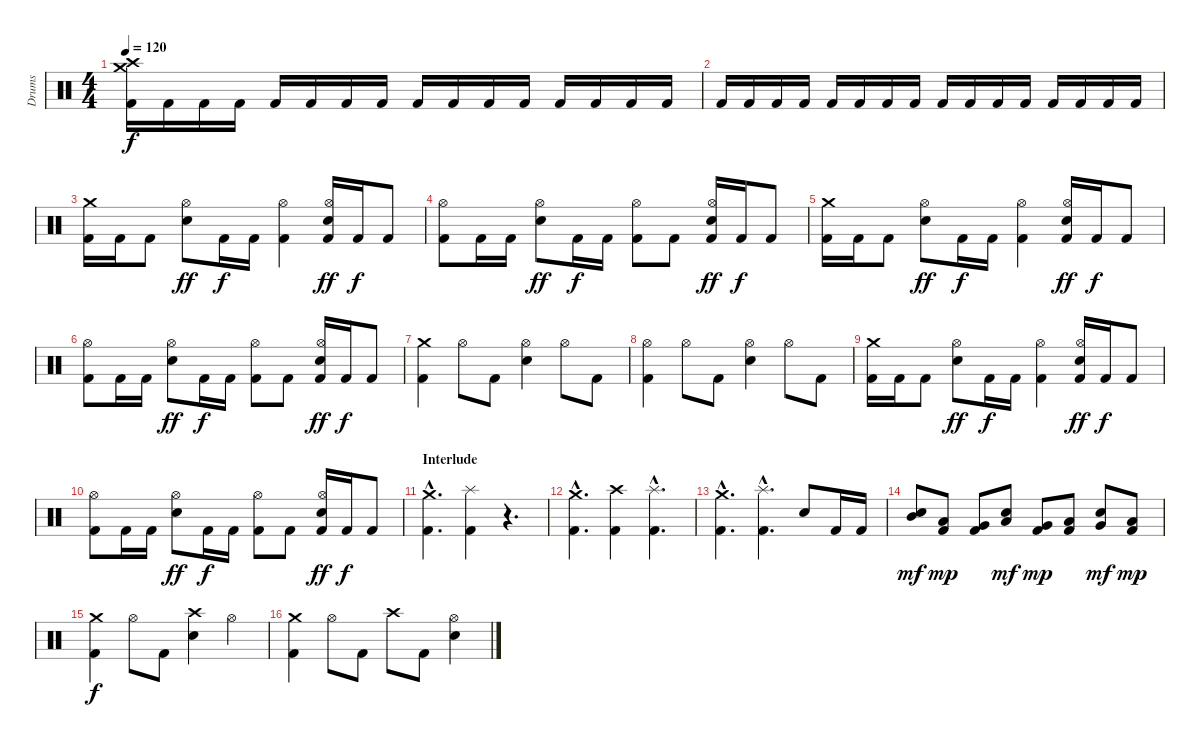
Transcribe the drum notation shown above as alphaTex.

\track ("Drums" "Drums") {instrument percussion}
\staff {score}
\articulation defaults
\ts (4 4)
\tempo 120
\clef neutral
\ks c
("Crash medium (hit)" "Crash high (hit)" "Kick (hit) 2").16{dy f} "Kick (hit) 2".16 "Kick (hit) 2".16 "Kick (hit) 2".16 "Kick (hit) 2".16 "Kick (hit) 2".16 "Kick (hit) 2".16 "Kick (hit) 2".16 "Kick (hit) 2".16 "Kick (hit) 2".16 "Kick (hit) 2".16 "Kick (hit) 2".16 "Kick (hit) 2".16 "Kick (hit) 2".16 "Kick (hit) 2".16 "Kick (hit) 2".16 |
"Kick (hit) 2".16 "Kick (hit) 2".16 "Kick (hit) 2".16 "Kick (hit) 2".16 "Kick (hit) 2".16 "Kick (hit) 2".16 "Kick (hit) 2".16 "Kick (hit) 2".16 "Kick (hit) 2".16 "Kick (hit) 2".16 "Kick (hit) 2".16 "Kick (hit) 2".16 "Kick (hit) 2".16 "Kick (hit) 2".16 "Kick (hit) 2".16 "Kick (hit) 2".16 |
("Crash medium (hit)" "Kick (hit) 2").16 "Kick (hit) 2".16 "Kick (hit) 2".8 ("Hi-Hat (open)" "Snare (hit) 2").8{dy ff} "Kick (hit) 2".16{dy f} "Kick (hit) 2".16 ("Hi-Hat (open)" "Kick (hit) 2").4 ("Hi-Hat (open)" "Snare (hit) 2" "Kick (hit) 2").16{dy ff} "Kick (hit) 2".16{dy f} "Kick (hit) 2".8 |
("Hi-Hat (open)" "Kick (hit) 2").8 "Kick (hit) 2".16 "Kick (hit) 2".16 ("Hi-Hat (open)" "Snare (hit) 2").8{dy ff} "Kick (hit) 2".16{dy f} "Kick (hit) 2".16 ("Hi-Hat (open)" "Kick (hit) 2").8 "Kick (hit) 2".8 ("Hi-Hat (open)" "Snare (hit) 2" "Kick (hit) 2").16{dy ff} "Kick (hit) 2".16{dy f} "Kick (hit) 2".8 |
("Crash medium (hit)" "Kick (hit) 2").16 "Kick (hit) 2".16 "Kick (hit) 2".8 ("Hi-Hat (open)" "Snare (hit) 2").8{dy ff} "Kick (hit) 2".16{dy f} "Kick (hit) 2".16 ("Hi-Hat (open)" "Kick (hit) 2").4 ("Hi-Hat (open)" "Snare (hit) 2" "Kick (hit) 2").16{dy ff} "Kick (hit) 2".16{dy f} "Kick (hit) 2".8 |
("Hi-Hat (open)" "Kick (hit) 2").8 "Kick (hit) 2".16 "Kick (hit) 2".16 ("Hi-Hat (open)" "Snare (hit) 2").8{dy ff} "Kick (hit) 2".16{dy f} "Kick (hit) 2".16 ("Hi-Hat (open)" "Kick (hit) 2").8 "Kick (hit) 2".8 ("Hi-Hat (open)" "Snare (hit) 2" "Kick (hit) 2").16{dy ff} "Kick (hit) 2".16{dy f} "Kick (hit) 2".8 |
("Crash medium (hit)" "Kick (hit) 2").4 "Hi-Hat (open)".8 "Kick (hit) 2".8 ("Hi-Hat (open)" "Snare (hit) 2").4 "Hi-Hat (open)".8 "Kick (hit) 2".8 |
("Hi-Hat (open)" "Kick (hit) 2").4 "Hi-Hat (open)".8 "Kick (hit) 2".8 ("Hi-Hat (open)" "Snare (hit) 2").4 "Hi-Hat (open)".8 "Kick (hit) 2".8 |
("Crash medium (hit)" "Kick (hit) 2").16 "Kick (hit) 2".16 "Kick (hit) 2".8 ("Hi-Hat (open)" "Snare (hit) 2").8{dy ff} "Kick (hit) 2".16{dy f} "Kick (hit) 2".16 ("Hi-Hat (open)" "Kick (hit) 2").4 ("Hi-Hat (open)" "Snare (hit) 2" "Kick (hit) 2").16{dy ff} "Kick (hit) 2".16{dy f} "Kick (hit) 2".8 |
("Hi-Hat (open)" "Kick (hit) 2").8 "Kick (hit) 2".16 "Kick (hit) 2".16 ("Hi-Hat (open)" "Snare (hit) 2").8{dy ff} "Kick (hit) 2".16{dy f} "Kick (hit) 2".16 ("Hi-Hat (open)" "Kick (hit) 2").8 "Kick (hit) 2".8 ("Hi-Hat (open)" "Snare (hit) 2" "Kick (hit) 2").16{dy ff} "Kick (hit) 2".16{dy f} "Kick (hit) 2".8 |
\section ("" "Interlude")
("Crash medium (hit)"{hac} "Kick (hit) 2"{hac}).4{d} ("Splash (hit)" "Kick (hit) 2").4 r.4{d} |
("Crash medium (hit)"{hac} "Kick (hit) 2"{hac}).4{d} ("Crash high (hit)" "Kick (hit) 2").4 ("Splash (hit)"{hac} "Kick (hit) 2"{hac}).4{d} |
("Crash medium (hit)"{hac} "Kick (hit) 2"{hac}).4{d} ("Splash (hit)"{hac} "Kick (hit) 2"{hac}).4{d} "Snare (hit) 2".8 "Kick (hit) 2".16 "Kick (hit) 2".16 |
("Mid Tom (hit)" "Snare (hit) 2").8{dy mf} ("Low Tom (hit)" "Kick (hit) 2").8{dy mp} ("Very Low Tom (hit)" "Kick (hit) 2").8 ("Low Tom (hit)" "Snare (hit) 2").8{dy mf} ("Very Low Tom (hit)" "Kick (hit) 2").8{dy mp} ("Low Floor Tom (hit)" "Kick (hit) 2").8 ("Very Low Tom (hit)" "Snare (hit) 2").8{dy mf} ("Low Floor Tom (hit)" "Kick (hit) 2").8{dy mp} |
("Crash medium (hit)" "Kick (hit) 2").4{dy f} "Hi-Hat (open)".8 "Kick (hit) 2".8 ("Crash high (hit)" "Snare (hit) 2").4 "Hi-Hat (open)".4 |
("Crash medium (hit)" "Kick (hit) 2").4 "Hi-Hat (open)".8 "Kick (hit) 2".8 "Crash high (hit)".8 "Kick (hit) 2".8 ("Hi-Hat (open)" "Snare (hit) 2").4
